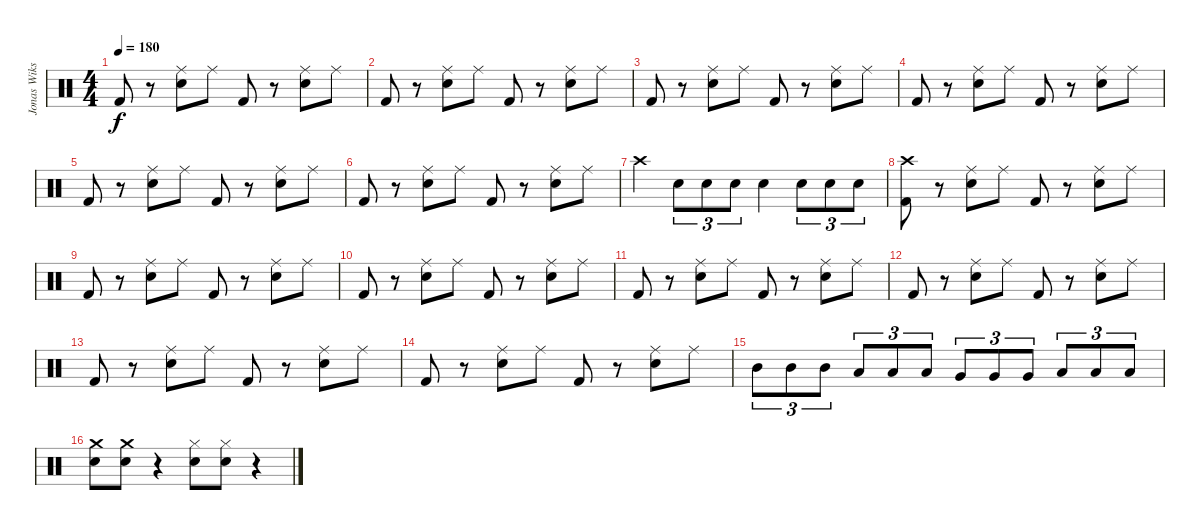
\track ("Jonas Wikstrand" "Jonas Wiks") {instrument percussion}
\staff {score}
\articulation defaults
\ts (4 4)
\tempo 180
\clef neutral
\ks c "Kick (hit) 2".8{dy f}
r.8 ("Ride (middle)" "Snare (hit) 2").8 "Ride (middle)".8 "Kick (hit) 2".8 r.8 ("Ride (middle)" "Snare (hit) 2").8 "Ride (middle)".8 |
"Kick (hit) 2".8 r.8 ("Ride (middle)" "Snare (hit) 2").8 "Ride (middle)".8 "Kick (hit) 2".8 r.8 ("Ride (middle)" "Snare (hit) 2").8 "Ride (middle)".8 |
"Kick (hit) 2".8 r.8 ("Ride (middle)" "Snare (hit) 2").8 "Ride (middle)".8 "Kick (hit) 2".8 r.8 ("Ride (middle)" "Snare (hit) 2").8 "Ride (middle)".8 |
"Kick (hit) 2".8 r.8 ("Ride (middle)" "Snare (hit) 2").8 "Ride (middle)".8 "Kick (hit) 2".8 r.8 ("Ride (middle)" "Snare (hit) 2").8 "Ride (middle)".8 |
"Kick (hit) 2".8 r.8 ("Ride (middle)" "Snare (hit) 2").8 "Ride (middle)".8 "Kick (hit) 2".8 r.8 ("Ride (middle)" "Snare (hit) 2").8 "Ride (middle)".8 |
"Kick (hit) 2".8 r.8 ("Ride (middle)" "Snare (hit) 2").8 "Ride (middle)".8 "Kick (hit) 2".8 r.8 ("Ride (middle)" "Snare (hit) 2").8 "Ride (middle)".8 |
"Crash high (hit)".4 "Snare (hit) 2".8{tu (3 2)} "Snare (hit) 2".8{tu (3 2)} "Snare (hit) 2".8{tu (3 2)} "Snare (hit) 2".4 "Snare (hit) 2".8{tu (3 2)} "Snare (hit) 2".8{tu (3 2)} "Snare (hit) 2".8{tu (3 2)} |
("Crash high (hit)" "Kick (hit) 2").8 r.8 ("Ride (middle)" "Snare (hit) 2").8 "Ride (middle)".8 "Kick (hit) 2".8 r.8 ("Ride (middle)" "Snare (hit) 2").8 "Ride (middle)".8 |
"Kick (hit) 2".8 r.8 ("Ride (middle)" "Snare (hit) 2").8 "Ride (middle)".8 "Kick (hit) 2".8 r.8 ("Ride (middle)" "Snare (hit) 2").8 "Ride (middle)".8 |
"Kick (hit) 2".8 r.8 ("Ride (middle)" "Snare (hit) 2").8 "Ride (middle)".8 "Kick (hit) 2".8 r.8 ("Ride (middle)" "Snare (hit) 2").8 "Ride (middle)".8 |
"Kick (hit) 2".8 r.8 ("Ride (middle)" "Snare (hit) 2").8 "Ride (middle)".8 "Kick (hit) 2".8 r.8 ("Ride (middle)" "Snare (hit) 2").8 "Ride (middle)".8 |
"Kick (hit) 2".8 r.8 ("Ride (middle)" "Snare (hit) 2").8 "Ride (middle)".8 "Kick (hit) 2".8 r.8 ("Ride (middle)" "Snare (hit) 2").8 "Ride (middle)".8 |
"Kick (hit) 2".8 r.8 ("Ride (middle)" "Snare (hit) 2").8 "Ride (middle)".8 "Kick (hit) 2".8 r.8 ("Ride (middle)" "Snare (hit) 2").8 "Ride (middle)".8 |
"Kick (hit) 2".8 r.8 ("Ride (middle)" "Snare (hit) 2").8 "Ride (middle)".8 "Kick (hit) 2".8 r.8 ("Ride (middle)" "Snare (hit) 2").8 "Ride (middle)".8 |
"Mid Tom (hit)".8{tu (3 2)} "Mid Tom (hit)".8{tu (3 2)} "Mid Tom (hit)".8{tu (3 2)} "Low Tom (hit)".8{tu (3 2)} "Low Tom (hit)".8{tu (3 2)} "Low Tom (hit)".8{tu (3 2)} "Very Low Tom (hit)".8{tu (3 2)} "Very Low Tom (hit)".8{tu (3 2)} "Very Low Tom (hit)".8{tu (3 2)} "Low Floor Tom (hit)".8{tu (3 2)} "Low Floor Tom (hit)".8{tu (3 2)} "Low Floor Tom (hit)".8{tu (3 2)} |
("Crash medium (hit)" "Snare (hit) 2").8 ("Crash medium (hit)" "Snare (hit) 2").8 r.4 ("Hi-Hat (closed)" "Snare (hit) 2").8 ("Hi-Hat (closed)" "Snare (hit) 2").8 r.4
